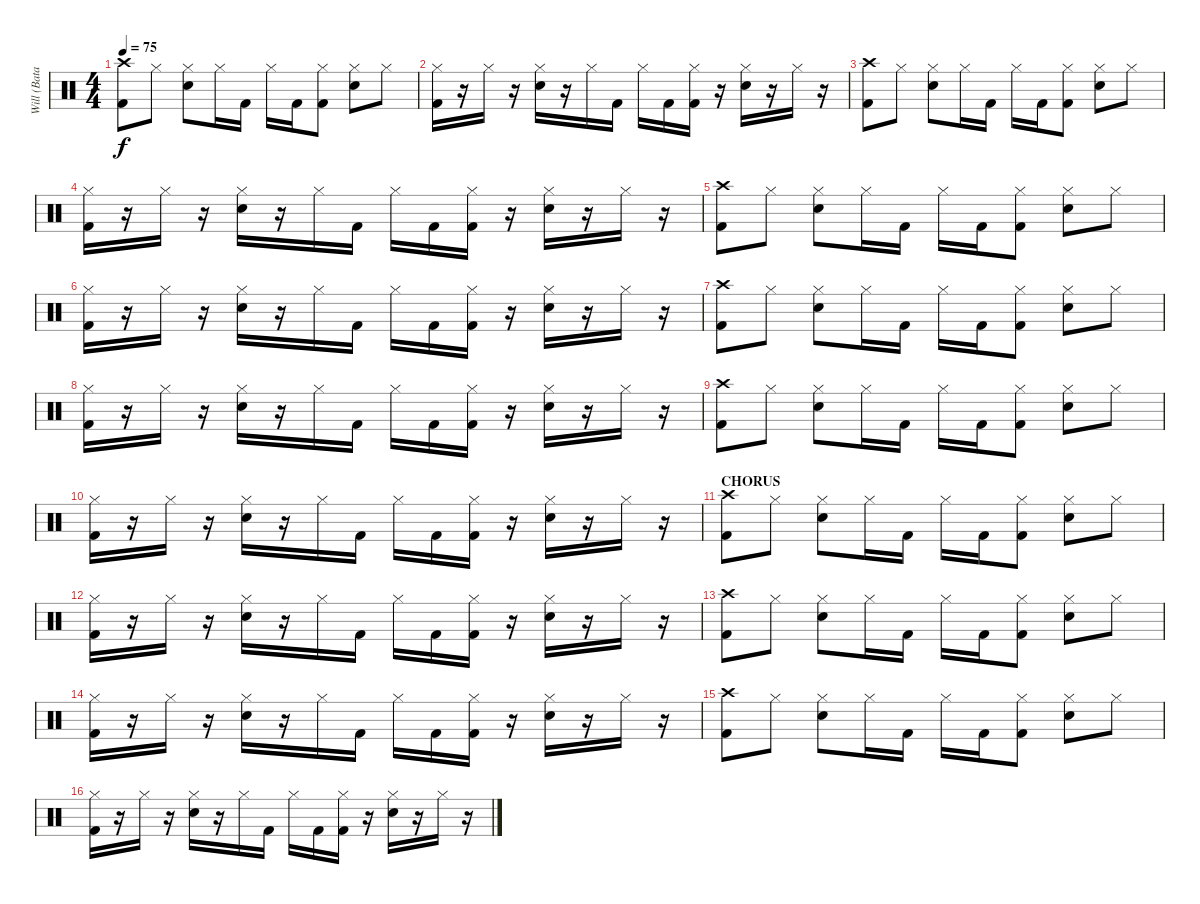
\track ("Will (Bataca)" "Will (Bata") {instrument percussion}
\staff {score}
\articulation defaults
\ts (4 4)
\tempo 75
\clef neutral
\ks c
("Crash high (hit)" "Kick (hit) 2").8{dy f} "Hi-Hat (closed)".8 ("Hi-Hat (closed)" "Snare (hit) 2").8 "Hi-Hat (closed)".16 "Kick (hit) 2".16 "Hi-Hat (closed)".16 "Kick (hit) 2".16 ("Hi-Hat (closed)" "Kick (hit) 2").8 ("Hi-Hat (closed)" "Snare (hit) 2").8 "Hi-Hat (closed)".8 |
("Hi-Hat (closed)" "Kick (hit) 2").16 r.16 "Hi-Hat (closed)".16 r.16 ("Hi-Hat (closed)" "Snare (hit) 2").16 r.16 "Hi-Hat (closed)".16 "Kick (hit) 2".16 "Hi-Hat (closed)".16 "Kick (hit) 2".16 ("Hi-Hat (closed)" "Kick (hit) 2").16 r.16 ("Hi-Hat (closed)" "Snare (hit) 2").16 r.16 "Hi-Hat (closed)".16 r.16 |
("Crash high (hit)" "Kick (hit) 2").8 "Hi-Hat (closed)".8 ("Hi-Hat (closed)" "Snare (hit) 2").8 "Hi-Hat (closed)".16 "Kick (hit) 2".16 "Hi-Hat (closed)".16 "Kick (hit) 2".16 ("Hi-Hat (closed)" "Kick (hit) 2").8 ("Hi-Hat (closed)" "Snare (hit) 2").8 "Hi-Hat (closed)".8 |
("Hi-Hat (closed)" "Kick (hit) 2").16 r.16 "Hi-Hat (closed)".16 r.16 ("Hi-Hat (closed)" "Snare (hit) 2").16 r.16 "Hi-Hat (closed)".16 "Kick (hit) 2".16 "Hi-Hat (closed)".16 "Kick (hit) 2".16 ("Hi-Hat (closed)" "Kick (hit) 2").16 r.16 ("Hi-Hat (closed)" "Snare (hit) 2").16 r.16 "Hi-Hat (closed)".16 r.16 |
("Crash high (hit)" "Kick (hit) 2").8 "Hi-Hat (closed)".8 ("Hi-Hat (closed)" "Snare (hit) 2").8 "Hi-Hat (closed)".16 "Kick (hit) 2".16 "Hi-Hat (closed)".16 "Kick (hit) 2".16 ("Hi-Hat (closed)" "Kick (hit) 2").8 ("Hi-Hat (closed)" "Snare (hit) 2").8 "Hi-Hat (closed)".8 |
("Hi-Hat (closed)" "Kick (hit) 2").16 r.16 "Hi-Hat (closed)".16 r.16 ("Hi-Hat (closed)" "Snare (hit) 2").16 r.16 "Hi-Hat (closed)".16 "Kick (hit) 2".16 "Hi-Hat (closed)".16 "Kick (hit) 2".16 ("Hi-Hat (closed)" "Kick (hit) 2").16 r.16 ("Hi-Hat (closed)" "Snare (hit) 2").16 r.16 "Hi-Hat (closed)".16 r.16 |
("Crash high (hit)" "Kick (hit) 2").8 "Hi-Hat (closed)".8 ("Hi-Hat (closed)" "Snare (hit) 2").8 "Hi-Hat (closed)".16 "Kick (hit) 2".16 "Hi-Hat (closed)".16 "Kick (hit) 2".16 ("Hi-Hat (closed)" "Kick (hit) 2").8 ("Hi-Hat (closed)" "Snare (hit) 2").8 "Hi-Hat (closed)".8 |
("Hi-Hat (closed)" "Kick (hit) 2").16 r.16 "Hi-Hat (closed)".16 r.16 ("Hi-Hat (closed)" "Snare (hit) 2").16 r.16 "Hi-Hat (closed)".16 "Kick (hit) 2".16 "Hi-Hat (closed)".16 "Kick (hit) 2".16 ("Hi-Hat (closed)" "Kick (hit) 2").16 r.16 ("Hi-Hat (closed)" "Snare (hit) 2").16 r.16 "Hi-Hat (closed)".16 r.16 |
("Crash high (hit)" "Kick (hit) 2").8 "Hi-Hat (closed)".8 ("Hi-Hat (closed)" "Snare (hit) 2").8 "Hi-Hat (closed)".16 "Kick (hit) 2".16 "Hi-Hat (closed)".16 "Kick (hit) 2".16 ("Hi-Hat (closed)" "Kick (hit) 2").8 ("Hi-Hat (closed)" "Snare (hit) 2").8 "Hi-Hat (closed)".8 |
("Hi-Hat (closed)" "Kick (hit) 2").16 r.16 "Hi-Hat (closed)".16 r.16 ("Hi-Hat (closed)" "Snare (hit) 2").16 r.16 "Hi-Hat (closed)".16 "Kick (hit) 2".16 "Hi-Hat (closed)".16 "Kick (hit) 2".16 ("Hi-Hat (closed)" "Kick (hit) 2").16 r.16 ("Hi-Hat (closed)" "Snare (hit) 2").16 r.16 "Hi-Hat (closed)".16 r.16 |
\section ("" "CHORUS")
("Crash high (hit)" "Kick (hit) 2").8 "Hi-Hat (closed)".8 ("Hi-Hat (closed)" "Snare (hit) 2").8 "Hi-Hat (closed)".16 "Kick (hit) 2".16 "Hi-Hat (closed)".16 "Kick (hit) 2".16 ("Hi-Hat (closed)" "Kick (hit) 2").8 ("Hi-Hat (closed)" "Snare (hit) 2").8 "Hi-Hat (closed)".8 |
("Hi-Hat (closed)" "Kick (hit) 2").16 r.16 "Hi-Hat (closed)".16 r.16 ("Hi-Hat (closed)" "Snare (hit) 2").16 r.16 "Hi-Hat (closed)".16 "Kick (hit) 2".16 "Hi-Hat (closed)".16 "Kick (hit) 2".16 ("Hi-Hat (closed)" "Kick (hit) 2").16 r.16 ("Hi-Hat (closed)" "Snare (hit) 2").16 r.16 "Hi-Hat (closed)".16 r.16 |
("Crash high (hit)" "Kick (hit) 2").8 "Hi-Hat (closed)".8 ("Hi-Hat (closed)" "Snare (hit) 2").8 "Hi-Hat (closed)".16 "Kick (hit) 2".16 "Hi-Hat (closed)".16 "Kick (hit) 2".16 ("Hi-Hat (closed)" "Kick (hit) 2").8 ("Hi-Hat (closed)" "Snare (hit) 2").8 "Hi-Hat (closed)".8 |
("Hi-Hat (closed)" "Kick (hit) 2").16 r.16 "Hi-Hat (closed)".16 r.16 ("Hi-Hat (closed)" "Snare (hit) 2").16 r.16 "Hi-Hat (closed)".16 "Kick (hit) 2".16 "Hi-Hat (closed)".16 "Kick (hit) 2".16 ("Hi-Hat (closed)" "Kick (hit) 2").16 r.16 ("Hi-Hat (closed)" "Snare (hit) 2").16 r.16 "Hi-Hat (closed)".16 r.16 |
("Crash high (hit)" "Kick (hit) 2").8 "Hi-Hat (closed)".8 ("Hi-Hat (closed)" "Snare (hit) 2").8 "Hi-Hat (closed)".16 "Kick (hit) 2".16 "Hi-Hat (closed)".16 "Kick (hit) 2".16 ("Hi-Hat (closed)" "Kick (hit) 2").8 ("Hi-Hat (closed)" "Snare (hit) 2").8 "Hi-Hat (closed)".8 |
("Hi-Hat (closed)" "Kick (hit) 2").16 r.16 "Hi-Hat (closed)".16 r.16 ("Hi-Hat (closed)" "Snare (hit) 2").16 r.16 "Hi-Hat (closed)".16 "Kick (hit) 2".16 "Hi-Hat (closed)".16 "Kick (hit) 2".16 ("Hi-Hat (closed)" "Kick (hit) 2").16 r.16 ("Hi-Hat (closed)" "Snare (hit) 2").16 r.16 "Hi-Hat (closed)".16 r.16
